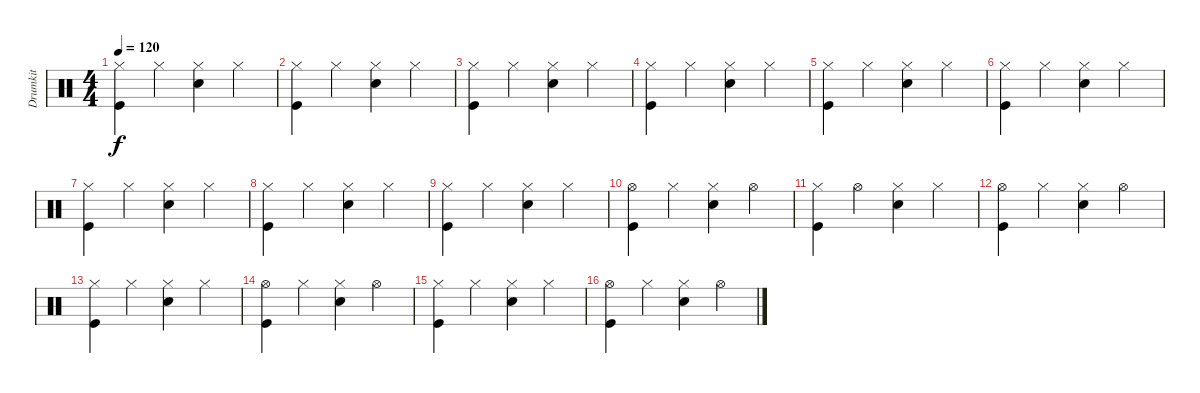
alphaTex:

\track ("Drumkit" "Drumkit") {instrument percussion}
\staff {score}
\articulation defaults
\ts (4 4)
\tempo 120
\clef neutral
\ks c
("Kick (hit)" "Hi-Hat (closed)").4{dy f} "Hi-Hat (closed)".4 ("Hi-Hat (closed)" "Snare (hit) 2").4 "Hi-Hat (closed)".4 |
("Kick (hit)" "Hi-Hat (closed)").4 "Hi-Hat (closed)".4 ("Hi-Hat (closed)" "Snare (hit) 2").4 "Hi-Hat (closed)".4 |
("Kick (hit)" "Hi-Hat (closed)").4 "Hi-Hat (closed)".4 ("Hi-Hat (closed)" "Snare (hit) 2").4 "Hi-Hat (closed)".4 |
("Kick (hit)" "Hi-Hat (closed)").4 "Hi-Hat (closed)".4 ("Hi-Hat (closed)" "Snare (hit) 2").4 "Hi-Hat (closed)".4 |
("Kick (hit)" "Hi-Hat (closed)").4 "Hi-Hat (closed)".4 ("Hi-Hat (closed)" "Snare (hit) 2").4 "Hi-Hat (closed)".4 |
("Kick (hit)" "Hi-Hat (closed)").4 "Hi-Hat (closed)".4 ("Hi-Hat (closed)" "Snare (hit) 2").4 "Hi-Hat (closed)".4 |
("Kick (hit)" "Hi-Hat (closed)").4 "Hi-Hat (closed)".4 ("Hi-Hat (closed)" "Snare (hit) 2").4 "Hi-Hat (closed)".4 |
("Kick (hit)" "Hi-Hat (closed)").4 "Hi-Hat (closed)".4 ("Hi-Hat (closed)" "Snare (hit) 2").4 "Hi-Hat (closed)".4 |
("Kick (hit)" "Hi-Hat (closed)").4 "Hi-Hat (closed)".4 ("Hi-Hat (closed)" "Snare (hit) 2").4 "Hi-Hat (closed)".4 |
("Kick (hit)" "Hi-Hat (open)").4 "Hi-Hat (closed)".4 ("Hi-Hat (closed)" "Snare (hit) 2").4 "Hi-Hat (open)".4 |
("Kick (hit)" "Hi-Hat (closed)").4 "Hi-Hat (open)".4 ("Hi-Hat (closed)" "Snare (hit) 2").4 "Hi-Hat (closed)".4 |
("Kick (hit)" "Hi-Hat (open)").4 "Hi-Hat (closed)".4 ("Hi-Hat (closed)" "Snare (hit) 2").4 "Hi-Hat (open)".4 |
("Kick (hit)" "Hi-Hat (closed)").4 "Hi-Hat (closed)".4 ("Hi-Hat (closed)" "Snare (hit) 2").4 "Hi-Hat (closed)".4 |
("Kick (hit)" "Hi-Hat (open)").4 "Hi-Hat (closed)".4 ("Hi-Hat (closed)" "Snare (hit) 2").4 "Hi-Hat (open)".4 |
("Kick (hit)" "Hi-Hat (closed)").4 "Hi-Hat (closed)".4 ("Hi-Hat (closed)" "Snare (hit) 2").4 "Hi-Hat (closed)".4 |
("Kick (hit)" "Hi-Hat (open)").4 "Hi-Hat (closed)".4 ("Hi-Hat (closed)" "Snare (hit) 2").4 "Hi-Hat (open)".4
